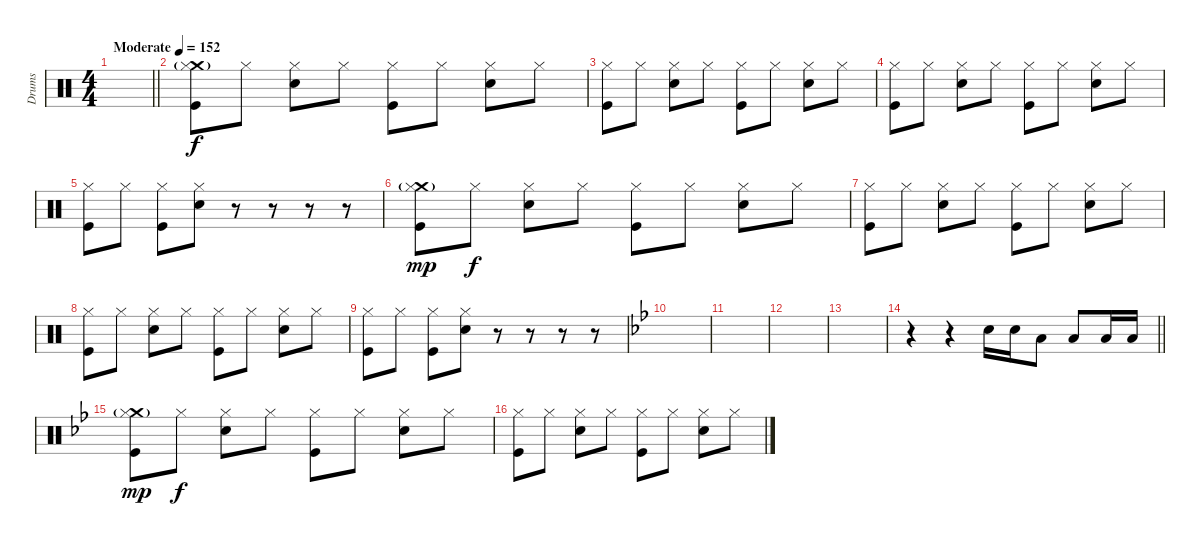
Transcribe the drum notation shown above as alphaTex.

\track ("Drums" "Drums") {instrument percussion}
\staff {score}
\articulation defaults
\ts (4 4)
\tempo (152 "Moderate")
\clef neutral
\barLineRight lightlight
\ks c
|
("Crash medium (hit)"{g} "Hi-Hat (closed)" "Kick (hit)").8 "Hi-Hat (closed)".8{dy f} ("Hi-Hat (closed)" "Electric Snare (hit)").8 "Hi-Hat (closed)".8 ("Hi-Hat (closed)" "Kick (hit)").8 "Hi-Hat (closed)".8 ("Hi-Hat (closed)" "Electric Snare (hit)").8 "Hi-Hat (closed)".8 |
("Hi-Hat (closed)" "Kick (hit)").8 "Hi-Hat (closed)".8 ("Hi-Hat (closed)" "Electric Snare (hit)").8 "Hi-Hat (closed)".8 ("Hi-Hat (closed)" "Kick (hit)").8 "Hi-Hat (closed)".8 ("Hi-Hat (closed)" "Electric Snare (hit)").8 "Hi-Hat (closed)".8 |
("Hi-Hat (closed)" "Kick (hit)").8 "Hi-Hat (closed)".8 ("Hi-Hat (closed)" "Electric Snare (hit)").8 "Hi-Hat (closed)".8 ("Hi-Hat (closed)" "Kick (hit)").8 "Hi-Hat (closed)".8 ("Hi-Hat (closed)" "Electric Snare (hit)").8 "Hi-Hat (closed)".8 |
("Hi-Hat (closed)" "Kick (hit)").8 "Hi-Hat (closed)".8 ("Hi-Hat (closed)" "Kick (hit)").8 ("Hi-Hat (closed)" "Electric Snare (hit)").8 r.8 r.8 r.8 r.8 |
("Crash medium (hit)"{g} "Hi-Hat (closed)" "Kick (hit)").8{dy mp} "Hi-Hat (closed)".8{dy f} ("Hi-Hat (closed)" "Electric Snare (hit)").8 "Hi-Hat (closed)".8 ("Hi-Hat (closed)" "Kick (hit)").8 "Hi-Hat (closed)".8 ("Hi-Hat (closed)" "Electric Snare (hit)").8 "Hi-Hat (closed)".8 |
("Hi-Hat (closed)" "Kick (hit)").8 "Hi-Hat (closed)".8 ("Hi-Hat (closed)" "Electric Snare (hit)").8 "Hi-Hat (closed)".8 ("Hi-Hat (closed)" "Kick (hit)").8 "Hi-Hat (closed)".8 ("Hi-Hat (closed)" "Electric Snare (hit)").8 "Hi-Hat (closed)".8 |
("Hi-Hat (closed)" "Kick (hit)").8 "Hi-Hat (closed)".8 ("Hi-Hat (closed)" "Electric Snare (hit)").8 "Hi-Hat (closed)".8 ("Hi-Hat (closed)" "Kick (hit)").8 "Hi-Hat (closed)".8 ("Hi-Hat (closed)" "Electric Snare (hit)").8 "Hi-Hat (closed)".8 |
("Hi-Hat (closed)" "Kick (hit)").8 "Hi-Hat (closed)".8 ("Hi-Hat (closed)" "Kick (hit)").8 ("Hi-Hat (closed)" "Electric Snare (hit)").8 r.8 r.8 r.8 r.8 |
\ks bb
|
|
|
|
\barLineRight lightlight
r.4 r.4 "Electric Snare (hit)".16 "Electric Snare (hit)".16 "Low Tom (hit)".8 "Low Tom (hit)".8 "Low Tom (hit)".16 "Low Tom (hit)".16 |
("Crash medium (hit)"{g} "Hi-Hat (closed)" "Kick (hit)").8{dy mp} "Hi-Hat (closed)".8{dy f} ("Hi-Hat (closed)" "Electric Snare (hit)").8 "Hi-Hat (closed)".8 ("Hi-Hat (closed)" "Kick (hit)").8 "Hi-Hat (closed)".8 ("Hi-Hat (closed)" "Electric Snare (hit)").8 "Hi-Hat (closed)".8 |
("Hi-Hat (closed)" "Kick (hit)").8 "Hi-Hat (closed)".8 ("Hi-Hat (closed)" "Electric Snare (hit)").8 "Hi-Hat (closed)".8 ("Hi-Hat (closed)" "Kick (hit)").8 "Hi-Hat (closed)".8 ("Hi-Hat (closed)" "Electric Snare (hit)").8 "Hi-Hat (closed)".8
